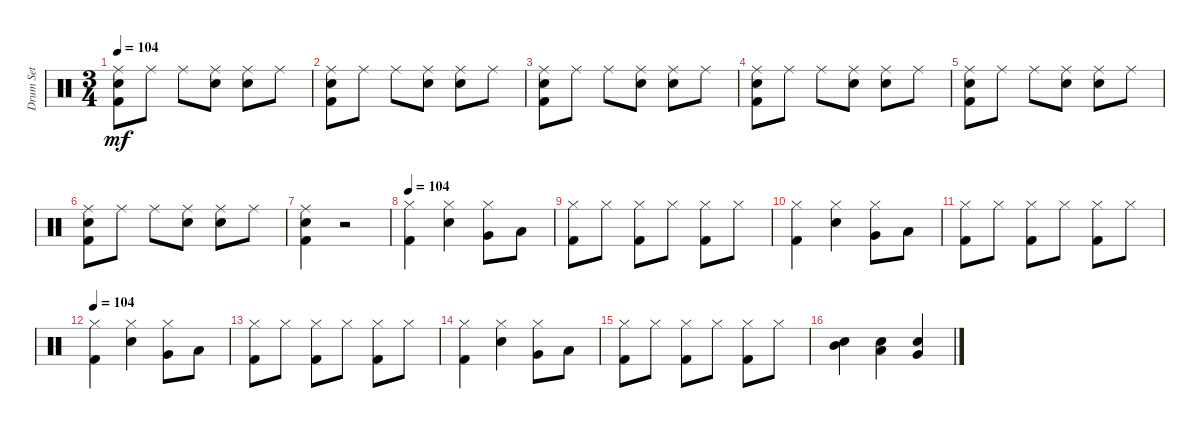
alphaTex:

\track ("Drum Set" "Drum Set") {instrument percussion}
\staff {score}
\articulation defaults
\ts (3 4)
\tempo 104
\clef neutral
\ks c
("Kick (hit) 2" "Snare (hit) 2" "Ride (middle)").8{dy mf} "Ride (middle)".8 "Ride (middle)".8 ("Ride (middle)" "Snare (hit) 2").8 ("Snare (hit) 2" "Ride (middle)").8 "Ride (middle)".8 |
("Kick (hit) 2" "Snare (hit) 2" "Ride (middle)").8 "Ride (middle)".8 "Ride (middle)".8 ("Snare (hit) 2" "Ride (middle)").8 ("Snare (hit) 2" "Ride (middle)").8 "Ride (middle)".8 |
("Kick (hit) 2" "Snare (hit) 2" "Ride (middle)").8 "Ride (middle)".8 "Ride (middle)".8 ("Snare (hit) 2" "Ride (middle)").8 ("Snare (hit) 2" "Ride (middle)").8 "Ride (middle)".8 |
("Kick (hit) 2" "Snare (hit) 2" "Ride (middle)").8 "Ride (middle)".8 "Ride (middle)".8 ("Ride (middle)" "Snare (hit) 2").8 ("Snare (hit) 2" "Ride (middle)").8 "Ride (middle)".8 |
("Kick (hit) 2" "Snare (hit) 2" "Ride (middle)").8 "Ride (middle)".8 "Ride (middle)".8 ("Ride (middle)" "Snare (hit) 2").8 ("Snare (hit) 2" "Ride (middle)").8 "Ride (middle)".8 |
("Kick (hit) 2" "Snare (hit) 2" "Ride (middle)").8 "Ride (middle)".8 "Ride (middle)".8 ("Ride (middle)" "Snare (hit) 2").8 ("Snare (hit) 2" "Ride (middle)").8 "Ride (middle)".8 |
("Kick (hit) 2" "Snare (hit) 2" "Ride (middle)").4 r.2 |
\tempo 104
("Kick (hit) 2" "Hi-Hat (closed)").4 ("Snare (hit) 2" "Hi-Hat (closed)").4 ("Very Low Tom (hit)" "Hi-Hat (closed)").8 "Low Tom (hit)".8 |
("Kick (hit) 2" "Hi-Hat (closed)").8 "Hi-Hat (closed)".8 ("Kick (hit) 2" "Hi-Hat (closed)").8 "Hi-Hat (closed)".8 ("Kick (hit) 2" "Hi-Hat (closed)").8 "Hi-Hat (closed)".8 |
("Kick (hit) 2" "Hi-Hat (closed)").4 ("Snare (hit) 2" "Hi-Hat (closed)").4 ("Very Low Tom (hit)" "Hi-Hat (closed)").8 "Low Tom (hit)".8 |
("Kick (hit) 2" "Hi-Hat (closed)").8 "Hi-Hat (closed)".8 ("Kick (hit) 2" "Hi-Hat (closed)").8 "Hi-Hat (closed)".8 ("Kick (hit) 2" "Hi-Hat (closed)").8 "Hi-Hat (closed)".8 |
\tempo 104
("Kick (hit) 2" "Hi-Hat (closed)").4 ("Snare (hit) 2" "Hi-Hat (closed)").4 ("Very Low Tom (hit)" "Hi-Hat (closed)").8 "Low Tom (hit)".8 |
("Kick (hit) 2" "Hi-Hat (closed)").8 "Hi-Hat (closed)".8 ("Kick (hit) 2" "Hi-Hat (closed)").8 "Hi-Hat (closed)".8 ("Kick (hit) 2" "Hi-Hat (closed)").8 "Hi-Hat (closed)".8 |
("Kick (hit) 2" "Hi-Hat (closed)").4 ("Snare (hit) 2" "Hi-Hat (closed)").4 ("Very Low Tom (hit)" "Hi-Hat (closed)").8 "Low Tom (hit)".8 |
("Kick (hit) 2" "Hi-Hat (closed)").8 "Hi-Hat (closed)".8 ("Kick (hit) 2" "Hi-Hat (closed)").8 "Hi-Hat (closed)".8 ("Kick (hit) 2" "Hi-Hat (closed)").8 "Hi-Hat (closed)".8 |
("Mid Tom (hit)" "Snare (hit) 2").4 ("Snare (hit) 2" "Low Tom (hit)").4 ("Very Low Tom (hit)" "Snare (hit) 2").4
